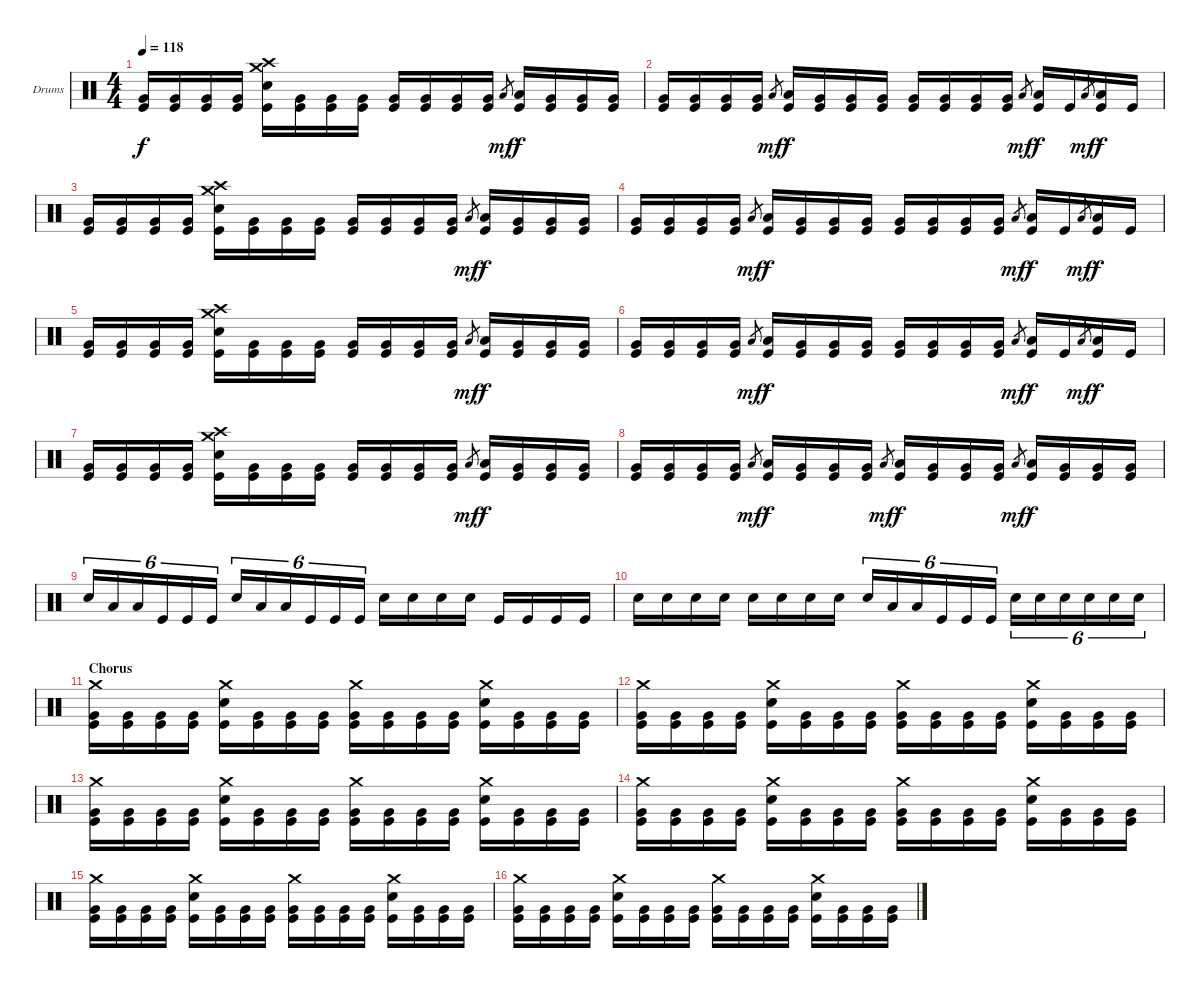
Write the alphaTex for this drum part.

\bracketExtendMode groupsimilarinstruments
\firstSystemTrackNameOrientation horizontal
\otherSystemsTrackNameOrientation horizontal
\track ("Drumkit" "Drums") {solo instrument percussion}
\staff {score}
\articulation defaults
\ts (4 4)
\tempo 118
\clef neutral
\ks c
("Kick (hit)" "Very Low Tom (hit)").16{dy f} ("Kick (hit)" "Very Low Tom (hit)").16 ("Kick (hit)" "Very Low Tom (hit)").16 ("Kick (hit)" "Very Low Tom (hit)").16 ("Kick (hit)" "Snare (hit) 2" "Crash high (hit)" "Crash medium (hit)").16 ("Kick (hit)" "Very Low Tom (hit)").16 ("Kick (hit)" "Very Low Tom (hit)").16 ("Kick (hit)" "Very Low Tom (hit)").16 ("Kick (hit)" "Very Low Tom (hit)").16 ("Kick (hit)" "Very Low Tom (hit)").16 ("Kick (hit)" "Very Low Tom (hit)").16 ("Kick (hit)" "Very Low Tom (hit)").16 "Low Tom (hit)".8{gr dy mf} ("Kick (hit)" "Low Tom (hit)").16{dy f} ("Kick (hit)" "Very Low Tom (hit)").16 ("Kick (hit)" "Very Low Tom (hit)").16 ("Kick (hit)" "Very Low Tom (hit)").16 |
("Kick (hit)" "Very Low Tom (hit)").16 ("Kick (hit)" "Very Low Tom (hit)").16 ("Kick (hit)" "Very Low Tom (hit)").16 ("Kick (hit)" "Very Low Tom (hit)").16 "Low Tom (hit)".8{gr dy mf} ("Kick (hit)" "Low Tom (hit)").16{dy f} ("Kick (hit)" "Very Low Tom (hit)").16 ("Kick (hit)" "Very Low Tom (hit)").16 ("Kick (hit)" "Very Low Tom (hit)").16 ("Kick (hit)" "Very Low Tom (hit)").16 ("Kick (hit)" "Very Low Tom (hit)").16 ("Kick (hit)" "Very Low Tom (hit)").16 ("Kick (hit)" "Very Low Tom (hit)").16 "Low Tom (hit)".8{gr dy mf} ("Kick (hit)" "Low Tom (hit)").16{dy f} "Kick (hit)".16 "Low Tom (hit)".8{gr dy mf} ("Kick (hit)" "Low Tom (hit)").16{dy f} "Kick (hit)".16 |
("Kick (hit)" "Very Low Tom (hit)").16 ("Kick (hit)" "Very Low Tom (hit)").16 ("Kick (hit)" "Very Low Tom (hit)").16 ("Kick (hit)" "Very Low Tom (hit)").16 ("Kick (hit)" "Snare (hit) 2" "Crash high (hit)" "Crash medium (hit)").16 ("Kick (hit)" "Very Low Tom (hit)").16 ("Kick (hit)" "Very Low Tom (hit)").16 ("Kick (hit)" "Very Low Tom (hit)").16 ("Kick (hit)" "Very Low Tom (hit)").16 ("Kick (hit)" "Very Low Tom (hit)").16 ("Kick (hit)" "Very Low Tom (hit)").16 ("Kick (hit)" "Very Low Tom (hit)").16 "Low Tom (hit)".8{gr dy mf} ("Kick (hit)" "Low Tom (hit)").16{dy f} ("Kick (hit)" "Very Low Tom (hit)").16 ("Kick (hit)" "Very Low Tom (hit)").16 ("Kick (hit)" "Very Low Tom (hit)").16 |
("Kick (hit)" "Very Low Tom (hit)").16 ("Kick (hit)" "Very Low Tom (hit)").16 ("Kick (hit)" "Very Low Tom (hit)").16 ("Kick (hit)" "Very Low Tom (hit)").16 "Low Tom (hit)".8{gr dy mf} ("Kick (hit)" "Low Tom (hit)").16{dy f} ("Kick (hit)" "Very Low Tom (hit)").16 ("Kick (hit)" "Very Low Tom (hit)").16 ("Kick (hit)" "Very Low Tom (hit)").16 ("Kick (hit)" "Very Low Tom (hit)").16 ("Kick (hit)" "Very Low Tom (hit)").16 ("Kick (hit)" "Very Low Tom (hit)").16 ("Kick (hit)" "Very Low Tom (hit)").16 "Low Tom (hit)".8{gr dy mf} ("Kick (hit)" "Low Tom (hit)").16{dy f} "Kick (hit)".16 "Low Tom (hit)".8{gr dy mf} ("Kick (hit)" "Low Tom (hit)").16{dy f} "Kick (hit)".16 |
("Kick (hit)" "Very Low Tom (hit)").16 ("Kick (hit)" "Very Low Tom (hit)").16 ("Kick (hit)" "Very Low Tom (hit)").16 ("Kick (hit)" "Very Low Tom (hit)").16 ("Kick (hit)" "Snare (hit) 2" "Crash high (hit)" "Crash medium (hit)").16 ("Kick (hit)" "Very Low Tom (hit)").16 ("Kick (hit)" "Very Low Tom (hit)").16 ("Kick (hit)" "Very Low Tom (hit)").16 ("Kick (hit)" "Very Low Tom (hit)").16 ("Kick (hit)" "Very Low Tom (hit)").16 ("Kick (hit)" "Very Low Tom (hit)").16 ("Kick (hit)" "Very Low Tom (hit)").16 "Low Tom (hit)".8{gr dy mf} ("Kick (hit)" "Low Tom (hit)").16{dy f} ("Kick (hit)" "Very Low Tom (hit)").16 ("Kick (hit)" "Very Low Tom (hit)").16 ("Kick (hit)" "Very Low Tom (hit)").16 |
("Kick (hit)" "Very Low Tom (hit)").16 ("Kick (hit)" "Very Low Tom (hit)").16 ("Kick (hit)" "Very Low Tom (hit)").16 ("Kick (hit)" "Very Low Tom (hit)").16 "Low Tom (hit)".8{gr dy mf} ("Kick (hit)" "Low Tom (hit)").16{dy f} ("Kick (hit)" "Very Low Tom (hit)").16 ("Kick (hit)" "Very Low Tom (hit)").16 ("Kick (hit)" "Very Low Tom (hit)").16 ("Kick (hit)" "Very Low Tom (hit)").16 ("Kick (hit)" "Very Low Tom (hit)").16 ("Kick (hit)" "Very Low Tom (hit)").16 ("Kick (hit)" "Very Low Tom (hit)").16 "Low Tom (hit)".8{gr dy mf} ("Kick (hit)" "Low Tom (hit)").16{dy f} "Kick (hit)".16 "Low Tom (hit)".8{gr dy mf} ("Kick (hit)" "Low Tom (hit)").16{dy f} "Kick (hit)".16 |
("Kick (hit)" "Very Low Tom (hit)").16 ("Kick (hit)" "Very Low Tom (hit)").16 ("Kick (hit)" "Very Low Tom (hit)").16 ("Kick (hit)" "Very Low Tom (hit)").16 ("Kick (hit)" "Snare (hit) 2" "Crash high (hit)" "Crash medium (hit)").16 ("Kick (hit)" "Very Low Tom (hit)").16 ("Kick (hit)" "Very Low Tom (hit)").16 ("Kick (hit)" "Very Low Tom (hit)").16 ("Kick (hit)" "Very Low Tom (hit)").16 ("Kick (hit)" "Very Low Tom (hit)").16 ("Kick (hit)" "Very Low Tom (hit)").16 ("Kick (hit)" "Very Low Tom (hit)").16 "Low Tom (hit)".8{gr dy mf} ("Kick (hit)" "Low Tom (hit)").16{dy f} ("Kick (hit)" "Very Low Tom (hit)").16 ("Kick (hit)" "Very Low Tom (hit)").16 ("Kick (hit)" "Very Low Tom (hit)").16 |
("Kick (hit)" "Very Low Tom (hit)").16 ("Kick (hit)" "Very Low Tom (hit)").16 ("Kick (hit)" "Very Low Tom (hit)").16 ("Kick (hit)" "Very Low Tom (hit)").16 "Low Tom (hit)".8{gr dy mf} ("Kick (hit)" "Low Tom (hit)").16{dy f} ("Kick (hit)" "Very Low Tom (hit)").16 ("Kick (hit)" "Very Low Tom (hit)").16 ("Kick (hit)" "Very Low Tom (hit)").16 "Low Tom (hit)".8{gr dy mf} ("Kick (hit)" "Low Tom (hit)").16{dy f} ("Kick (hit)" "Very Low Tom (hit)").16 ("Kick (hit)" "Very Low Tom (hit)").16 ("Kick (hit)" "Very Low Tom (hit)").16 "Low Tom (hit)".8{gr dy mf} ("Kick (hit)" "Low Tom (hit)").16{dy f} ("Kick (hit)" "Very Low Tom (hit)").16 ("Kick (hit)" "Very Low Tom (hit)").16 ("Kick (hit)" "Very Low Tom (hit)").16 |
"Snare (hit) 2".16{tu (6 4)} "Low Tom (hit)".16{tu (6 4)} "Low Tom (hit)".16{tu (6 4)} "Kick (hit)".16{tu (6 4)} "Kick (hit)".16{tu (6 4)} "Kick (hit)".16{tu (6 4)} "Snare (hit) 2".16{tu (6 4)} "Low Tom (hit)".16{tu (6 4)} "Low Tom (hit)".16{tu (6 4)} "Kick (hit)".16{tu (6 4)} "Kick (hit)".16{tu (6 4)} "Kick (hit)".16{tu (6 4)} "Snare (hit) 2".16 "Snare (hit) 2".16 "Snare (hit) 2".16 "Snare (hit) 2".16 "Kick (hit)".16 "Kick (hit)".16 "Kick (hit)".16 "Kick (hit)".16 |
"Snare (hit) 2".16 "Snare (hit) 2".16 "Snare (hit) 2".16 "Snare (hit) 2".16 "Snare (hit) 2".16 "Snare (hit) 2".16 "Snare (hit) 2".16 "Snare (hit) 2".16 "Snare (hit) 2".16{tu (6 4)} "Low Tom (hit)".16{tu (6 4)} "Low Tom (hit)".16{tu (6 4)} "Kick (hit)".16{tu (6 4)} "Kick (hit)".16{tu (6 4)} "Kick (hit)".16{tu (6 4)} "Snare (hit) 2".16{tu (6 4)} "Snare (hit) 2".16{tu (6 4)} "Snare (hit) 2".16{tu (6 4)} "Snare (hit) 2".16{tu (6 4)} "Snare (hit) 2".16{tu (6 4)} "Snare (hit) 2".16{tu (6 4)} |
\section ("" "Chorus")
("Kick (hit)" "Very Low Tom (hit)" "Crash medium (hit)").16 ("Kick (hit)" "Very Low Tom (hit)").16 ("Kick (hit)" "Very Low Tom (hit)").16 ("Kick (hit)" "Very Low Tom (hit)").16 ("Kick (hit)" "Snare (hit) 2" "Crash medium (hit)").16 ("Kick (hit)" "Very Low Tom (hit)").16 ("Kick (hit)" "Very Low Tom (hit)").16 ("Kick (hit)" "Very Low Tom (hit)").16 ("Kick (hit)" "Very Low Tom (hit)" "Crash medium (hit)").16 ("Kick (hit)" "Very Low Tom (hit)").16 ("Kick (hit)" "Very Low Tom (hit)").16 ("Kick (hit)" "Very Low Tom (hit)").16 ("Kick (hit)" "Snare (hit) 2" "Crash medium (hit)").16 ("Kick (hit)" "Very Low Tom (hit)").16 ("Kick (hit)" "Very Low Tom (hit)").16 ("Kick (hit)" "Very Low Tom (hit)").16 |
("Kick (hit)" "Very Low Tom (hit)" "Crash medium (hit)").16 ("Kick (hit)" "Very Low Tom (hit)").16 ("Kick (hit)" "Very Low Tom (hit)").16 ("Kick (hit)" "Very Low Tom (hit)").16 ("Kick (hit)" "Snare (hit) 2" "Crash medium (hit)").16 ("Kick (hit)" "Very Low Tom (hit)").16 ("Kick (hit)" "Very Low Tom (hit)").16 ("Kick (hit)" "Very Low Tom (hit)").16 ("Kick (hit)" "Very Low Tom (hit)" "Crash medium (hit)").16 ("Kick (hit)" "Very Low Tom (hit)").16 ("Kick (hit)" "Very Low Tom (hit)").16 ("Kick (hit)" "Very Low Tom (hit)").16 ("Kick (hit)" "Snare (hit) 2" "Crash medium (hit)").16 ("Kick (hit)" "Very Low Tom (hit)").16 ("Kick (hit)" "Very Low Tom (hit)").16 ("Kick (hit)" "Very Low Tom (hit)").16 |
("Kick (hit)" "Very Low Tom (hit)" "Crash medium (hit)").16 ("Kick (hit)" "Very Low Tom (hit)").16 ("Kick (hit)" "Very Low Tom (hit)").16 ("Kick (hit)" "Very Low Tom (hit)").16 ("Kick (hit)" "Snare (hit) 2" "Crash medium (hit)").16 ("Kick (hit)" "Very Low Tom (hit)").16 ("Kick (hit)" "Very Low Tom (hit)").16 ("Kick (hit)" "Very Low Tom (hit)").16 ("Kick (hit)" "Very Low Tom (hit)" "Crash medium (hit)").16 ("Kick (hit)" "Very Low Tom (hit)").16 ("Kick (hit)" "Very Low Tom (hit)").16 ("Kick (hit)" "Very Low Tom (hit)").16 ("Kick (hit)" "Snare (hit) 2" "Crash medium (hit)").16 ("Kick (hit)" "Very Low Tom (hit)").16 ("Kick (hit)" "Very Low Tom (hit)").16 ("Kick (hit)" "Very Low Tom (hit)").16 |
("Kick (hit)" "Very Low Tom (hit)" "Crash medium (hit)").16 ("Kick (hit)" "Very Low Tom (hit)").16 ("Kick (hit)" "Very Low Tom (hit)").16 ("Kick (hit)" "Very Low Tom (hit)").16 ("Kick (hit)" "Snare (hit) 2" "Crash medium (hit)").16 ("Kick (hit)" "Very Low Tom (hit)").16 ("Kick (hit)" "Very Low Tom (hit)").16 ("Kick (hit)" "Very Low Tom (hit)").16 ("Kick (hit)" "Very Low Tom (hit)" "Crash medium (hit)").16 ("Kick (hit)" "Very Low Tom (hit)").16 ("Kick (hit)" "Very Low Tom (hit)").16 ("Kick (hit)" "Very Low Tom (hit)").16 ("Kick (hit)" "Snare (hit) 2" "Crash medium (hit)").16 ("Kick (hit)" "Very Low Tom (hit)").16 ("Kick (hit)" "Very Low Tom (hit)").16 ("Kick (hit)" "Very Low Tom (hit)").16 |
("Kick (hit)" "Very Low Tom (hit)" "Crash medium (hit)").16 ("Kick (hit)" "Very Low Tom (hit)").16 ("Kick (hit)" "Very Low Tom (hit)").16 ("Kick (hit)" "Very Low Tom (hit)").16 ("Kick (hit)" "Snare (hit) 2" "Crash medium (hit)").16 ("Kick (hit)" "Very Low Tom (hit)").16 ("Kick (hit)" "Very Low Tom (hit)").16 ("Kick (hit)" "Very Low Tom (hit)").16 ("Kick (hit)" "Very Low Tom (hit)" "Crash medium (hit)").16 ("Kick (hit)" "Very Low Tom (hit)").16 ("Kick (hit)" "Very Low Tom (hit)").16 ("Kick (hit)" "Very Low Tom (hit)").16 ("Kick (hit)" "Snare (hit) 2" "Crash medium (hit)").16 ("Kick (hit)" "Very Low Tom (hit)").16 ("Kick (hit)" "Very Low Tom (hit)").16 ("Kick (hit)" "Very Low Tom (hit)").16 |
("Kick (hit)" "Very Low Tom (hit)" "Crash medium (hit)").16 ("Kick (hit)" "Very Low Tom (hit)").16 ("Kick (hit)" "Very Low Tom (hit)").16 ("Kick (hit)" "Very Low Tom (hit)").16 ("Kick (hit)" "Snare (hit) 2" "Crash medium (hit)").16 ("Kick (hit)" "Very Low Tom (hit)").16 ("Kick (hit)" "Very Low Tom (hit)").16 ("Kick (hit)" "Very Low Tom (hit)").16 ("Kick (hit)" "Very Low Tom (hit)" "Crash medium (hit)").16 ("Kick (hit)" "Very Low Tom (hit)").16 ("Kick (hit)" "Very Low Tom (hit)").16 ("Kick (hit)" "Very Low Tom (hit)").16 ("Kick (hit)" "Snare (hit) 2" "Crash medium (hit)").16 ("Kick (hit)" "Very Low Tom (hit)").16 ("Kick (hit)" "Very Low Tom (hit)").16 ("Kick (hit)" "Very Low Tom (hit)").16
